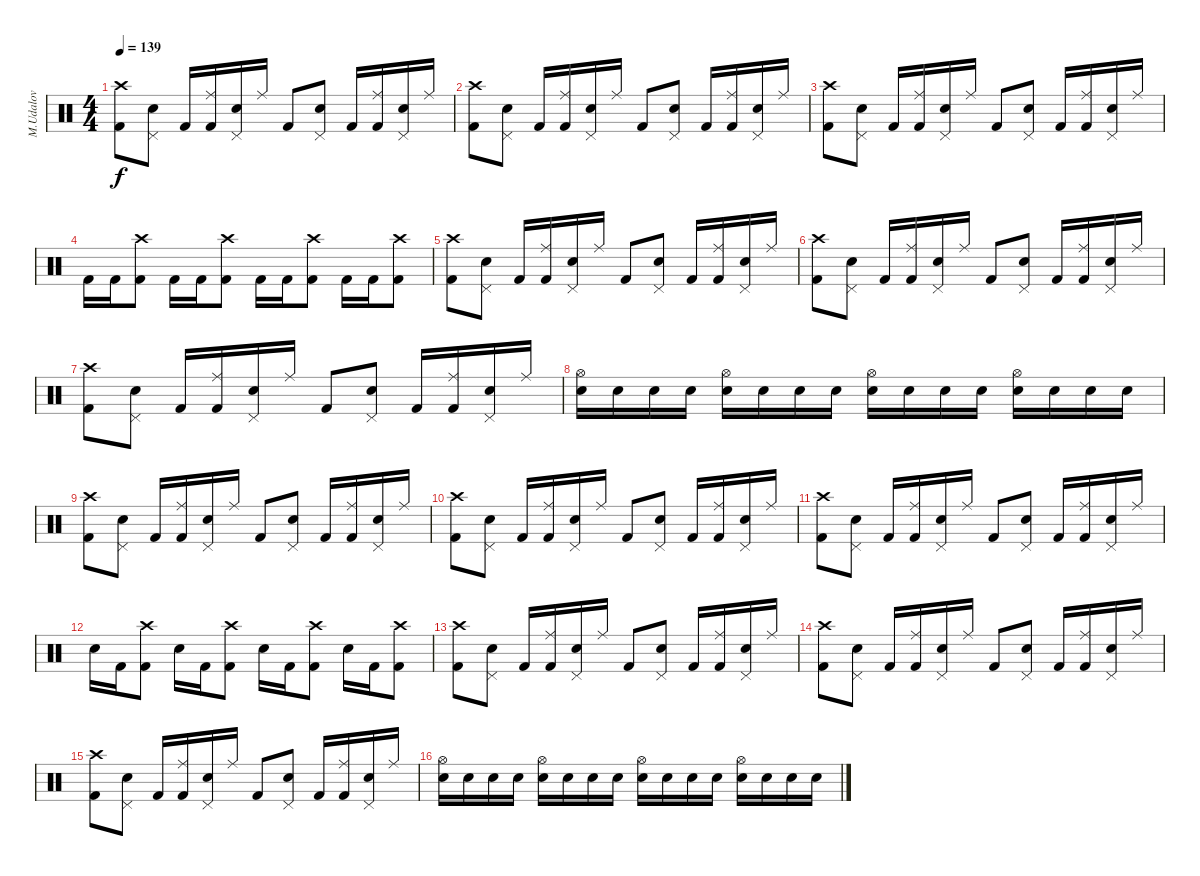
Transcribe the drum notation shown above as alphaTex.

\track ("M.Udalov" "M.Udalov") {instrument percussion}
\staff {score}
\articulation defaults
\ts (4 4)
\tempo 139
\clef neutral
\ks c
("Crash high (hit)" "Kick (hit) 2").8{dy f} ("Pedal Hi-Hat (hit)" "Snare (hit) 2").8 "Kick (hit) 2".16 ("Ride (middle)" "Kick (hit) 2").16 ("Pedal Hi-Hat (hit)" "Snare (hit) 2").16 "Ride (middle)".16 "Kick (hit) 2".8 ("Pedal Hi-Hat (hit)" "Snare (hit) 2").8 "Kick (hit) 2".16 ("Ride (middle)" "Kick (hit) 2").16 ("Pedal Hi-Hat (hit)" "Snare (hit) 2").16 "Ride (middle)".16 |
("Crash high (hit)" "Kick (hit) 2").8 ("Pedal Hi-Hat (hit)" "Snare (hit) 2").8 "Kick (hit) 2".16 ("Ride (middle)" "Kick (hit) 2").16 ("Pedal Hi-Hat (hit)" "Snare (hit) 2").16 "Ride (middle)".16 "Kick (hit) 2".8 ("Pedal Hi-Hat (hit)" "Snare (hit) 2").8 "Kick (hit) 2".16 ("Ride (middle)" "Kick (hit) 2").16 ("Pedal Hi-Hat (hit)" "Snare (hit) 2").16 "Ride (middle)".16 |
("Crash high (hit)" "Kick (hit) 2").8 ("Pedal Hi-Hat (hit)" "Snare (hit) 2").8 "Kick (hit) 2".16 ("Ride (middle)" "Kick (hit) 2").16 ("Pedal Hi-Hat (hit)" "Snare (hit) 2").16 "Ride (middle)".16 "Kick (hit) 2".8 ("Pedal Hi-Hat (hit)" "Snare (hit) 2").8 "Kick (hit) 2".16 ("Ride (middle)" "Kick (hit) 2").16 ("Pedal Hi-Hat (hit)" "Snare (hit) 2").16 "Ride (middle)".16 |
"Kick (hit) 2".16 "Kick (hit) 2".16 ("Crash high (hit)" "Kick (hit) 2").8 "Kick (hit) 2".16 "Kick (hit) 2".16 ("Crash high (hit)" "Kick (hit) 2").8 "Kick (hit) 2".16 "Kick (hit) 2".16 ("Crash high (hit)" "Kick (hit) 2").8 "Kick (hit) 2".16 "Kick (hit) 2".16 ("Crash high (hit)" "Kick (hit) 2").8 |
("Crash high (hit)" "Kick (hit) 2").8 ("Pedal Hi-Hat (hit)" "Snare (hit) 2").8 "Kick (hit) 2".16 ("Ride (middle)" "Kick (hit) 2").16 ("Pedal Hi-Hat (hit)" "Snare (hit) 2").16 "Ride (middle)".16 "Kick (hit) 2".8 ("Pedal Hi-Hat (hit)" "Snare (hit) 2").8 "Kick (hit) 2".16 ("Ride (middle)" "Kick (hit) 2").16 ("Pedal Hi-Hat (hit)" "Snare (hit) 2").16 "Ride (middle)".16 |
("Crash high (hit)" "Kick (hit) 2").8 ("Pedal Hi-Hat (hit)" "Snare (hit) 2").8 "Kick (hit) 2".16 ("Ride (middle)" "Kick (hit) 2").16 ("Pedal Hi-Hat (hit)" "Snare (hit) 2").16 "Ride (middle)".16 "Kick (hit) 2".8 ("Pedal Hi-Hat (hit)" "Snare (hit) 2").8 "Kick (hit) 2".16 ("Ride (middle)" "Kick (hit) 2").16 ("Pedal Hi-Hat (hit)" "Snare (hit) 2").16 "Ride (middle)".16 |
("Crash high (hit)" "Kick (hit) 2").8 ("Pedal Hi-Hat (hit)" "Snare (hit) 2").8 "Kick (hit) 2".16 ("Ride (middle)" "Kick (hit) 2").16 ("Pedal Hi-Hat (hit)" "Snare (hit) 2").16 "Ride (middle)".16 "Kick (hit) 2".8 ("Pedal Hi-Hat (hit)" "Snare (hit) 2").8 "Kick (hit) 2".16 ("Ride (middle)" "Kick (hit) 2").16 ("Pedal Hi-Hat (hit)" "Snare (hit) 2").16 "Ride (middle)".16 |
("Hi-Hat (open)" "Snare (hit) 2").16 "Snare (hit) 2".16 "Snare (hit) 2".16 "Snare (hit) 2".16 ("Hi-Hat (open)" "Snare (hit) 2").16 "Snare (hit) 2".16 "Snare (hit) 2".16 "Snare (hit) 2".16 ("Hi-Hat (open)" "Snare (hit) 2").16 "Snare (hit) 2".16 "Snare (hit) 2".16 "Snare (hit) 2".16 ("Hi-Hat (open)" "Snare (hit) 2").16 "Snare (hit) 2".16 "Snare (hit) 2".16 "Snare (hit) 2".16 |
("Crash high (hit)" "Kick (hit) 2").8 ("Pedal Hi-Hat (hit)" "Snare (hit) 2").8 "Kick (hit) 2".16 ("Ride (middle)" "Kick (hit) 2").16 ("Pedal Hi-Hat (hit)" "Snare (hit) 2").16 "Ride (middle)".16 "Kick (hit) 2".8 ("Pedal Hi-Hat (hit)" "Snare (hit) 2").8 "Kick (hit) 2".16 ("Ride (middle)" "Kick (hit) 2").16 ("Pedal Hi-Hat (hit)" "Snare (hit) 2").16 "Ride (middle)".16 |
("Crash high (hit)" "Kick (hit) 2").8 ("Pedal Hi-Hat (hit)" "Snare (hit) 2").8 "Kick (hit) 2".16 ("Ride (middle)" "Kick (hit) 2").16 ("Pedal Hi-Hat (hit)" "Snare (hit) 2").16 "Ride (middle)".16 "Kick (hit) 2".8 ("Pedal Hi-Hat (hit)" "Snare (hit) 2").8 "Kick (hit) 2".16 ("Ride (middle)" "Kick (hit) 2").16 ("Pedal Hi-Hat (hit)" "Snare (hit) 2").16 "Ride (middle)".16 |
("Crash high (hit)" "Kick (hit) 2").8 ("Pedal Hi-Hat (hit)" "Snare (hit) 2").8 "Kick (hit) 2".16 ("Ride (middle)" "Kick (hit) 2").16 ("Pedal Hi-Hat (hit)" "Snare (hit) 2").16 "Ride (middle)".16 "Kick (hit) 2".8 ("Pedal Hi-Hat (hit)" "Snare (hit) 2").8 "Kick (hit) 2".16 ("Ride (middle)" "Kick (hit) 2").16 ("Pedal Hi-Hat (hit)" "Snare (hit) 2").16 "Ride (middle)".16 |
"Snare (hit) 2".16 "Kick (hit) 2".16 ("Crash high (hit)" "Kick (hit) 2").8 "Snare (hit) 2".16 "Kick (hit) 2".16 ("Crash high (hit)" "Kick (hit) 2").8 "Snare (hit) 2".16 "Kick (hit) 2".16 ("Crash high (hit)" "Kick (hit) 2").8 "Snare (hit) 2".16 "Kick (hit) 2".16 ("Crash high (hit)" "Kick (hit) 2").8 |
("Crash high (hit)" "Kick (hit) 2").8 ("Pedal Hi-Hat (hit)" "Snare (hit) 2").8 "Kick (hit) 2".16 ("Ride (middle)" "Kick (hit) 2").16 ("Pedal Hi-Hat (hit)" "Snare (hit) 2").16 "Ride (middle)".16 "Kick (hit) 2".8 ("Pedal Hi-Hat (hit)" "Snare (hit) 2").8 "Kick (hit) 2".16 ("Ride (middle)" "Kick (hit) 2").16 ("Pedal Hi-Hat (hit)" "Snare (hit) 2").16 "Ride (middle)".16 |
("Crash high (hit)" "Kick (hit) 2").8 ("Pedal Hi-Hat (hit)" "Snare (hit) 2").8 "Kick (hit) 2".16 ("Ride (middle)" "Kick (hit) 2").16 ("Pedal Hi-Hat (hit)" "Snare (hit) 2").16 "Ride (middle)".16 "Kick (hit) 2".8 ("Pedal Hi-Hat (hit)" "Snare (hit) 2").8 "Kick (hit) 2".16 ("Ride (middle)" "Kick (hit) 2").16 ("Pedal Hi-Hat (hit)" "Snare (hit) 2").16 "Ride (middle)".16 |
("Crash high (hit)" "Kick (hit) 2").8 ("Pedal Hi-Hat (hit)" "Snare (hit) 2").8 "Kick (hit) 2".16 ("Ride (middle)" "Kick (hit) 2").16 ("Pedal Hi-Hat (hit)" "Snare (hit) 2").16 "Ride (middle)".16 "Kick (hit) 2".8 ("Pedal Hi-Hat (hit)" "Snare (hit) 2").8 "Kick (hit) 2".16 ("Ride (middle)" "Kick (hit) 2").16 ("Pedal Hi-Hat (hit)" "Snare (hit) 2").16 "Ride (middle)".16 |
("Hi-Hat (open)" "Snare (hit) 2").16 "Snare (hit) 2".16 "Snare (hit) 2".16 "Snare (hit) 2".16 ("Hi-Hat (open)" "Snare (hit) 2").16 "Snare (hit) 2".16 "Snare (hit) 2".16 "Snare (hit) 2".16 ("Hi-Hat (open)" "Snare (hit) 2").16 "Snare (hit) 2".16 "Snare (hit) 2".16 "Snare (hit) 2".16 ("Hi-Hat (open)" "Snare (hit) 2").16 "Snare (hit) 2".16 "Snare (hit) 2".16 "Snare (hit) 2".16
